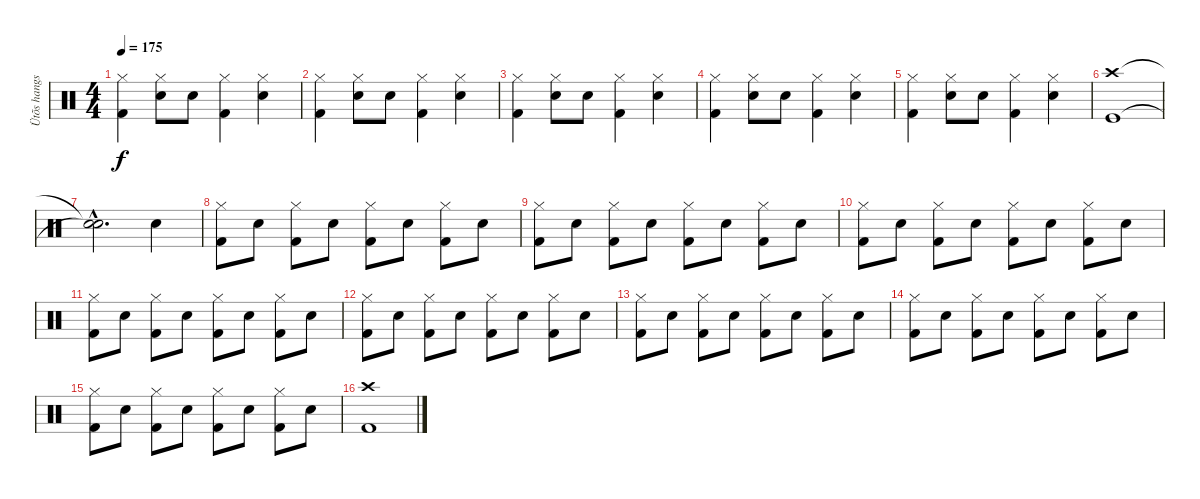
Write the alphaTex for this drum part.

\track ("Ütõs hangszer" "Ütõs hangs") {instrument percussion}
\staff {score}
\articulation defaults
\ts (4 4)
\tempo 175
\clef neutral
\ks c
("Hi-Hat (closed)" "Kick (hit) 2").4{dy f} ("Hi-Hat (closed)" "Electric Snare (hit)").8 "Electric Snare (hit)".8 ("Hi-Hat (closed)" "Kick (hit) 2").4 ("Hi-Hat (closed)" "Electric Snare (hit)").4 |
("Hi-Hat (closed)" "Kick (hit) 2").4 ("Hi-Hat (closed)" "Electric Snare (hit)").8 "Electric Snare (hit)".8 ("Hi-Hat (closed)" "Kick (hit) 2").4 ("Hi-Hat (closed)" "Electric Snare (hit)").4 |
("Hi-Hat (closed)" "Kick (hit) 2").4 ("Hi-Hat (closed)" "Electric Snare (hit)").8 "Electric Snare (hit)".8 ("Hi-Hat (closed)" "Kick (hit) 2").4 ("Hi-Hat (closed)" "Electric Snare (hit)").4 |
("Hi-Hat (closed)" "Kick (hit) 2").4 ("Hi-Hat (closed)" "Electric Snare (hit)").8 "Electric Snare (hit)".8 ("Hi-Hat (closed)" "Kick (hit) 2").4 ("Hi-Hat (closed)" "Electric Snare (hit)").4 |
("Hi-Hat (closed)" "Kick (hit) 2").4 ("Hi-Hat (closed)" "Electric Snare (hit)").8 "Electric Snare (hit)".8 ("Hi-Hat (closed)" "Kick (hit) 2").4 ("Hi-Hat (closed)" "Electric Snare (hit)").4 |
("Crash high (hit)" "Kick (hit)").1 |
("Snare (hit)"{hac t} "Snare (hit)"{hac t}).2{d} "Electric Snare (hit)".4 |
("Hi-Hat (closed)" "Kick (hit) 2").8 "Electric Snare (hit)".8 ("Hi-Hat (closed)" "Kick (hit) 2").8 "Electric Snare (hit)".8 ("Hi-Hat (closed)" "Kick (hit) 2").8 "Electric Snare (hit)".8 ("Hi-Hat (closed)" "Kick (hit) 2").8 "Electric Snare (hit)".8 |
("Hi-Hat (closed)" "Kick (hit) 2").8 "Electric Snare (hit)".8 ("Hi-Hat (closed)" "Kick (hit) 2").8 "Electric Snare (hit)".8 ("Hi-Hat (closed)" "Kick (hit) 2").8 "Electric Snare (hit)".8 ("Hi-Hat (closed)" "Kick (hit) 2").8 "Electric Snare (hit)".8 |
("Hi-Hat (closed)" "Kick (hit) 2").8 "Electric Snare (hit)".8 ("Hi-Hat (closed)" "Kick (hit) 2").8 "Electric Snare (hit)".8 ("Hi-Hat (closed)" "Kick (hit) 2").8 "Electric Snare (hit)".8 ("Hi-Hat (closed)" "Kick (hit) 2").8 "Electric Snare (hit)".8 |
("Hi-Hat (closed)" "Kick (hit) 2").8 "Electric Snare (hit)".8 ("Hi-Hat (closed)" "Kick (hit) 2").8 "Electric Snare (hit)".8 ("Hi-Hat (closed)" "Kick (hit) 2").8 "Electric Snare (hit)".8 ("Hi-Hat (closed)" "Kick (hit) 2").8 "Electric Snare (hit)".8 |
("Hi-Hat (closed)" "Kick (hit) 2").8 "Electric Snare (hit)".8 ("Hi-Hat (closed)" "Kick (hit) 2").8 "Electric Snare (hit)".8 ("Hi-Hat (closed)" "Kick (hit) 2").8 "Electric Snare (hit)".8 ("Hi-Hat (closed)" "Kick (hit) 2").8 "Electric Snare (hit)".8 |
("Hi-Hat (closed)" "Kick (hit) 2").8 "Electric Snare (hit)".8 ("Hi-Hat (closed)" "Kick (hit) 2").8 "Electric Snare (hit)".8 ("Hi-Hat (closed)" "Kick (hit) 2").8 "Electric Snare (hit)".8 ("Hi-Hat (closed)" "Kick (hit) 2").8 "Electric Snare (hit)".8 |
("Hi-Hat (closed)" "Kick (hit) 2").8 "Electric Snare (hit)".8 ("Hi-Hat (closed)" "Kick (hit) 2").8 "Electric Snare (hit)".8 ("Hi-Hat (closed)" "Kick (hit) 2").8 "Electric Snare (hit)".8 ("Hi-Hat (closed)" "Kick (hit) 2").8 "Electric Snare (hit)".8 |
("Hi-Hat (closed)" "Kick (hit) 2").8 "Electric Snare (hit)".8 ("Hi-Hat (closed)" "Kick (hit) 2").8 "Electric Snare (hit)".8 ("Hi-Hat (closed)" "Kick (hit) 2").8 "Electric Snare (hit)".8 ("Hi-Hat (closed)" "Kick (hit) 2").8 "Electric Snare (hit)".8 |
("Crash high (hit)" "Kick (hit) 2").1
